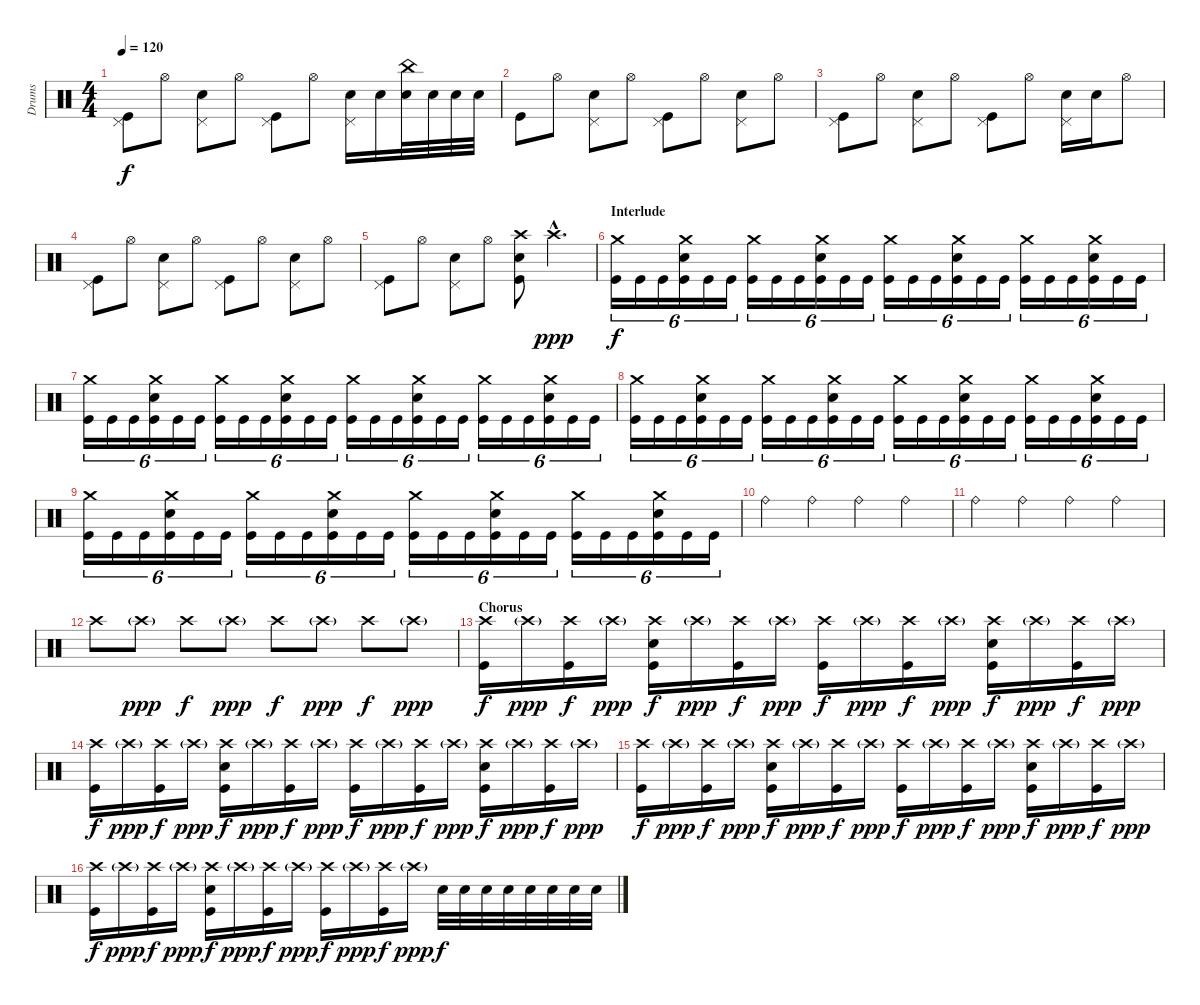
\track ("Drums" "Drums") {instrument percussion}
\staff {score}
\articulation defaults
\ts (4 4)
\tempo 120
\clef neutral
\ks c
("Pedal Hi-Hat (hit)" "Kick (hit)").8{dy f} "Hi-Hat (open)".8 ("Pedal Hi-Hat (hit)" "Electric Snare (hit)").8 "Hi-Hat (open)".8 ("Pedal Hi-Hat (hit)" "Kick (hit)").8 "Hi-Hat (open)".8 ("Pedal Hi-Hat (hit)" "Electric Snare (hit)").16 "Electric Snare (hit)".16 ("China (hit)" "Electric Snare (hit)").32 "Electric Snare (hit)".32 "Electric Snare (hit)".32 "Electric Snare (hit)".32 |
"Kick (hit)".8 "Hi-Hat (open)".8 ("Pedal Hi-Hat (hit)" "Electric Snare (hit)").8 "Hi-Hat (open)".8 ("Pedal Hi-Hat (hit)" "Kick (hit)").8 "Hi-Hat (open)".8 ("Pedal Hi-Hat (hit)" "Electric Snare (hit)").8 "Hi-Hat (open)".8 |
("Pedal Hi-Hat (hit)" "Kick (hit)").8 "Hi-Hat (open)".8 ("Pedal Hi-Hat (hit)" "Electric Snare (hit)").8 "Hi-Hat (open)".8 ("Pedal Hi-Hat (hit)" "Kick (hit)").8 "Hi-Hat (open)".8 ("Pedal Hi-Hat (hit)" "Electric Snare (hit)").16 "Electric Snare (hit)".16 "Hi-Hat (open)".8 |
("Pedal Hi-Hat (hit)" "Kick (hit)").8 "Hi-Hat (open)".8 ("Pedal Hi-Hat (hit)" "Electric Snare (hit)").8 "Hi-Hat (open)".8 ("Pedal Hi-Hat (hit)" "Kick (hit)").8 "Hi-Hat (open)".8 ("Pedal Hi-Hat (hit)" "Electric Snare (hit)").8 "Hi-Hat (open)".8 |
("Pedal Hi-Hat (hit)" "Kick (hit)").8 "Hi-Hat (open)".8 ("Pedal Hi-Hat (hit)" "Electric Snare (hit)").8 "Hi-Hat (open)".8 ("Crash high (hit)" "Electric Snare (hit)" "Kick (hit)").8 "Crash high (hit)"{hac}.4{d dy ppp} |
\section ("" "Interlude")
("Crash medium (hit)" "Kick (hit)").16{tu (6 4) dy f} "Kick (hit)".16{tu (6 4)} "Kick (hit)".16{tu (6 4)} ("Crash medium (hit)" "Electric Snare (hit)" "Kick (hit)").16{tu (6 4)} "Kick (hit)".16{tu (6 4)} "Kick (hit)".16{tu (6 4)} ("Crash medium (hit)" "Kick (hit)").16{tu (6 4)} "Kick (hit)".16{tu (6 4)} "Kick (hit)".16{tu (6 4)} ("Crash medium (hit)" "Electric Snare (hit)" "Kick (hit)").16{tu (6 4)} "Kick (hit)".16{tu (6 4)} "Kick (hit)".16{tu (6 4)} ("Crash medium (hit)" "Kick (hit)").16{tu (6 4)} "Kick (hit)".16{tu (6 4)} "Kick (hit)".16{tu (6 4)} ("Crash medium (hit)" "Electric Snare (hit)" "Kick (hit)").16{tu (6 4)} "Kick (hit)".16{tu (6 4)} "Kick (hit)".16{tu (6 4)} ("Crash medium (hit)" "Kick (hit)").16{tu (6 4)} "Kick (hit)".16{tu (6 4)} "Kick (hit)".16{tu (6 4)} ("Crash medium (hit)" "Electric Snare (hit)" "Kick (hit)").16{tu (6 4)} "Kick (hit)".16{tu (6 4)} "Kick (hit)".16{tu (6 4)} |
("Crash medium (hit)" "Kick (hit)").16{tu (6 4)} "Kick (hit)".16{tu (6 4)} "Kick (hit)".16{tu (6 4)} ("Crash medium (hit)" "Electric Snare (hit)" "Kick (hit)").16{tu (6 4)} "Kick (hit)".16{tu (6 4)} "Kick (hit)".16{tu (6 4)} ("Crash medium (hit)" "Kick (hit)").16{tu (6 4)} "Kick (hit)".16{tu (6 4)} "Kick (hit)".16{tu (6 4)} ("Crash medium (hit)" "Electric Snare (hit)" "Kick (hit)").16{tu (6 4)} "Kick (hit)".16{tu (6 4)} "Kick (hit)".16{tu (6 4)} ("Crash medium (hit)" "Kick (hit)").16{tu (6 4)} "Kick (hit)".16{tu (6 4)} "Kick (hit)".16{tu (6 4)} ("Crash medium (hit)" "Electric Snare (hit)" "Kick (hit)").16{tu (6 4)} "Kick (hit)".16{tu (6 4)} "Kick (hit)".16{tu (6 4)} ("Crash medium (hit)" "Kick (hit)").16{tu (6 4)} "Kick (hit)".16{tu (6 4)} "Kick (hit)".16{tu (6 4)} ("Crash medium (hit)" "Electric Snare (hit)" "Kick (hit)").16{tu (6 4)} "Kick (hit)".16{tu (6 4)} "Kick (hit)".16{tu (6 4)} |
("Crash medium (hit)" "Kick (hit)").16{tu (6 4)} "Kick (hit)".16{tu (6 4)} "Kick (hit)".16{tu (6 4)} ("Crash medium (hit)" "Electric Snare (hit)" "Kick (hit)").16{tu (6 4)} "Kick (hit)".16{tu (6 4)} "Kick (hit)".16{tu (6 4)} ("Crash medium (hit)" "Kick (hit)").16{tu (6 4)} "Kick (hit)".16{tu (6 4)} "Kick (hit)".16{tu (6 4)} ("Crash medium (hit)" "Electric Snare (hit)" "Kick (hit)").16{tu (6 4)} "Kick (hit)".16{tu (6 4)} "Kick (hit)".16{tu (6 4)} ("Crash medium (hit)" "Kick (hit)").16{tu (6 4)} "Kick (hit)".16{tu (6 4)} "Kick (hit)".16{tu (6 4)} ("Crash medium (hit)" "Electric Snare (hit)" "Kick (hit)").16{tu (6 4)} "Kick (hit)".16{tu (6 4)} "Kick (hit)".16{tu (6 4)} ("Crash medium (hit)" "Kick (hit)").16{tu (6 4)} "Kick (hit)".16{tu (6 4)} "Kick (hit)".16{tu (6 4)} ("Crash medium (hit)" "Electric Snare (hit)" "Kick (hit)").16{tu (6 4)} "Kick (hit)".16{tu (6 4)} "Kick (hit)".16{tu (6 4)} |
("Crash medium (hit)" "Kick (hit)").16{tu (6 4)} "Kick (hit)".16{tu (6 4)} "Kick (hit)".16{tu (6 4)} ("Crash medium (hit)" "Electric Snare (hit)" "Kick (hit)").16{tu (6 4)} "Kick (hit)".16{tu (6 4)} "Kick (hit)".16{tu (6 4)} ("Crash medium (hit)" "Kick (hit)").16{tu (6 4)} "Kick (hit)".16{tu (6 4)} "Kick (hit)".16{tu (6 4)} ("Crash medium (hit)" "Electric Snare (hit)" "Kick (hit)").16{tu (6 4)} "Kick (hit)".16{tu (6 4)} "Kick (hit)".16{tu (6 4)} ("Crash medium (hit)" "Kick (hit)").16{tu (6 4)} "Kick (hit)".16{tu (6 4)} "Kick (hit)".16{tu (6 4)} ("Crash medium (hit)" "Electric Snare (hit)" "Kick (hit)").16{tu (6 4)} "Kick (hit)".16{tu (6 4)} "Kick (hit)".16{tu (6 4)} ("Crash medium (hit)" "Kick (hit)").16{tu (6 4)} "Kick (hit)".16{tu (6 4)} "Kick (hit)".16{tu (6 4)} ("Crash medium (hit)" "Electric Snare (hit)" "Kick (hit)").16{tu (6 4)} "Kick (hit)".16{tu (6 4)} "Kick (hit)".16{tu (6 4)} |
"Ride (bell)".4 "Ride (bell)".4 "Ride (bell)".4 "Ride (bell)".4 |
"Ride (bell)".4 "Ride (bell)".4 "Ride (bell)".4 "Ride (bell)".4 |
"Crash high (hit)".8 "Crash high (hit)"{g}.8{dy ppp} "Crash high (hit)".8{dy f} "Crash high (hit)"{g}.8{dy ppp} "Crash high (hit)".8{dy f} "Crash high (hit)"{g}.8{dy ppp} "Crash high (hit)".8{dy f} "Crash high (hit)"{g}.8{dy ppp} |
\section ("" "Chorus")
("Crash high (hit)" "Kick (hit)").16{dy f} "Crash high (hit)"{g}.16{dy ppp} ("Crash high (hit)" "Kick (hit)").16{dy f} "Crash high (hit)"{g}.16{dy ppp} ("Crash high (hit)" "Electric Snare (hit)" "Kick (hit)").16{dy f} "Crash high (hit)"{g}.16{dy ppp} ("Crash high (hit)" "Kick (hit)").16{dy f} "Crash high (hit)"{g}.16{dy ppp} ("Crash high (hit)" "Kick (hit)").16{dy f} "Crash high (hit)"{g}.16{dy ppp} ("Crash high (hit)" "Kick (hit)").16{dy f} "Crash high (hit)"{g}.16{dy ppp} ("Crash high (hit)" "Electric Snare (hit)" "Kick (hit)").16{dy f} "Crash high (hit)"{g}.16{dy ppp} ("Crash high (hit)" "Kick (hit)").16{dy f} "Crash high (hit)"{g}.16{dy ppp} |
("Crash high (hit)" "Kick (hit)").16{dy f} "Crash high (hit)"{g}.16{dy ppp} ("Crash high (hit)" "Kick (hit)").16{dy f} "Crash high (hit)"{g}.16{dy ppp} ("Crash high (hit)" "Electric Snare (hit)" "Kick (hit)").16{dy f} "Crash high (hit)"{g}.16{dy ppp} ("Crash high (hit)" "Kick (hit)").16{dy f} "Crash high (hit)"{g}.16{dy ppp} ("Crash high (hit)" "Kick (hit)").16{dy f} "Crash high (hit)"{g}.16{dy ppp} ("Crash high (hit)" "Kick (hit)").16{dy f} "Crash high (hit)"{g}.16{dy ppp} ("Crash high (hit)" "Electric Snare (hit)" "Kick (hit)").16{dy f} "Crash high (hit)"{g}.16{dy ppp} ("Crash high (hit)" "Kick (hit)").16{dy f} "Crash high (hit)"{g}.16{dy ppp} |
("Crash high (hit)" "Kick (hit)").16{dy f} "Crash high (hit)"{g}.16{dy ppp} ("Crash high (hit)" "Kick (hit)").16{dy f} "Crash high (hit)"{g}.16{dy ppp} ("Crash high (hit)" "Electric Snare (hit)" "Kick (hit)").16{dy f} "Crash high (hit)"{g}.16{dy ppp} ("Crash high (hit)" "Kick (hit)").16{dy f} "Crash high (hit)"{g}.16{dy ppp} ("Crash high (hit)" "Kick (hit)").16{dy f} "Crash high (hit)"{g}.16{dy ppp} ("Crash high (hit)" "Kick (hit)").16{dy f} "Crash high (hit)"{g}.16{dy ppp} ("Crash high (hit)" "Electric Snare (hit)" "Kick (hit)").16{dy f} "Crash high (hit)"{g}.16{dy ppp} ("Crash high (hit)" "Kick (hit)").16{dy f} "Crash high (hit)"{g}.16{dy ppp} |
("Crash high (hit)" "Kick (hit)").16{dy f} "Crash high (hit)"{g}.16{dy ppp} ("Crash high (hit)" "Kick (hit)").16{dy f} "Crash high (hit)"{g}.16{dy ppp} ("Crash high (hit)" "Electric Snare (hit)" "Kick (hit)").16{dy f} "Crash high (hit)"{g}.16{dy ppp} ("Crash high (hit)" "Kick (hit)").16{dy f} "Crash high (hit)"{g}.16{dy ppp} ("Crash high (hit)" "Kick (hit)").16{dy f} "Crash high (hit)"{g}.16{dy ppp} ("Crash high (hit)" "Kick (hit)").16{dy f} "Crash high (hit)"{g}.16{dy ppp} "Electric Snare (hit)".32{dy f} "Electric Snare (hit)".32 "Electric Snare (hit)".32 "Electric Snare (hit)".32 "Electric Snare (hit)".32 "Electric Snare (hit)".32 "Electric Snare (hit)".32 "Electric Snare (hit)".32
